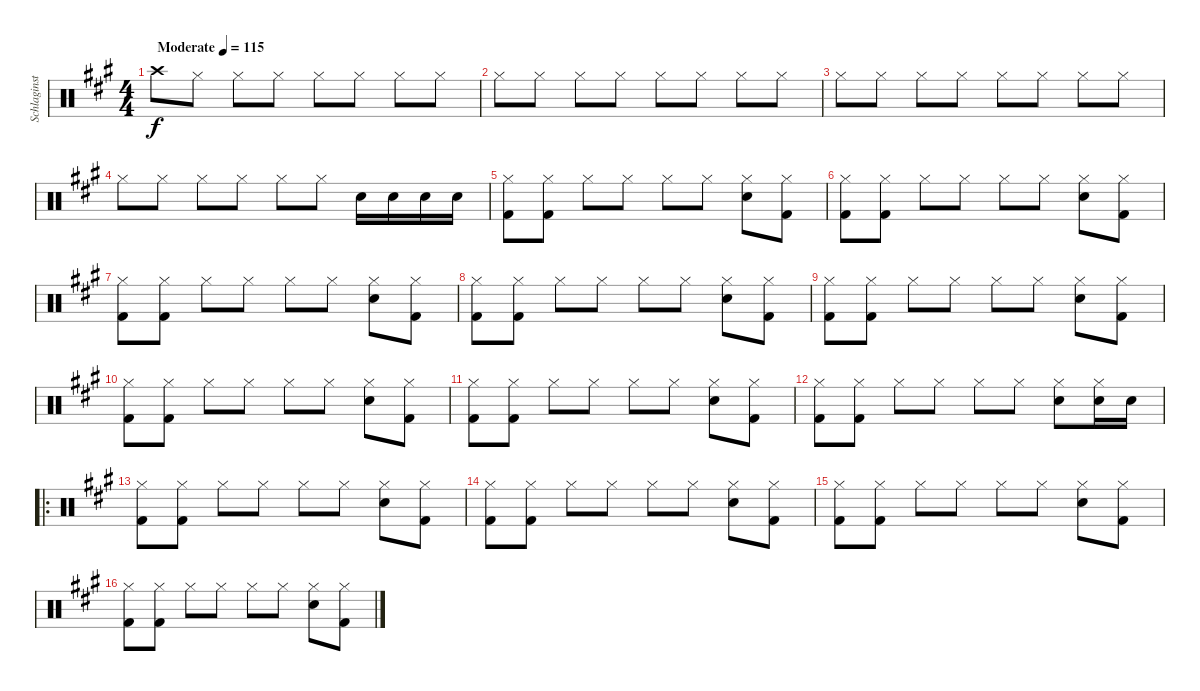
\track ("Schlaginstrumente - Auswahl" "Schlaginst") {instrument percussion}
\staff {score}
\articulation defaults
\ts (4 4)
\tempo (115 "Moderate")
\clef neutral
\ks a "Crash high (hit)".8{dy f} "Hi-Hat (closed)".8 "Hi-Hat (closed)".8 "Hi-Hat (closed)".8 "Hi-Hat (closed)".8 "Hi-Hat (closed)".8 "Hi-Hat (closed)".8 "Hi-Hat (closed)".8
|
"Hi-Hat (closed)".8 "Hi-Hat (closed)".8 "Hi-Hat (closed)".8 "Hi-Hat (closed)".8 "Hi-Hat (closed)".8 "Hi-Hat (closed)".8 "Hi-Hat (closed)".8 "Hi-Hat (closed)".8 |
"Hi-Hat (closed)".8 "Hi-Hat (closed)".8 "Hi-Hat (closed)".8 "Hi-Hat (closed)".8 "Hi-Hat (closed)".8 "Hi-Hat (closed)".8 "Hi-Hat (closed)".8 "Hi-Hat (closed)".8 |
"Hi-Hat (closed)".8 "Hi-Hat (closed)".8 "Hi-Hat (closed)".8 "Hi-Hat (closed)".8 "Hi-Hat (closed)".8 "Hi-Hat (closed)".8 "Snare (hit) 2".16 "Snare (hit) 2".16 "Snare (hit) 2".16 "Snare (hit) 2".16 |
("Hi-Hat (closed)" "Kick (hit) 2").8 ("Hi-Hat (closed)" "Kick (hit) 2").8 "Hi-Hat (closed)".8 "Hi-Hat (closed)".8 "Hi-Hat (closed)".8 "Hi-Hat (closed)".8 ("Snare (hit) 2" "Hi-Hat (closed)").8 ("Hi-Hat (closed)" "Kick (hit) 2").8 |
("Hi-Hat (closed)" "Kick (hit) 2").8 ("Hi-Hat (closed)" "Kick (hit) 2").8 "Hi-Hat (closed)".8 "Hi-Hat (closed)".8 "Hi-Hat (closed)".8 "Hi-Hat (closed)".8 ("Snare (hit) 2" "Hi-Hat (closed)").8 ("Hi-Hat (closed)" "Kick (hit) 2").8 |
("Hi-Hat (closed)" "Kick (hit) 2").8 ("Hi-Hat (closed)" "Kick (hit) 2").8 "Hi-Hat (closed)".8 "Hi-Hat (closed)".8 "Hi-Hat (closed)".8 "Hi-Hat (closed)".8 ("Snare (hit) 2" "Hi-Hat (closed)").8 ("Hi-Hat (closed)" "Kick (hit) 2").8 |
("Hi-Hat (closed)" "Kick (hit) 2").8 ("Hi-Hat (closed)" "Kick (hit) 2").8 "Hi-Hat (closed)".8 "Hi-Hat (closed)".8 "Hi-Hat (closed)".8 "Hi-Hat (closed)".8 ("Snare (hit) 2" "Hi-Hat (closed)").8 ("Hi-Hat (closed)" "Kick (hit) 2").8 |
("Hi-Hat (closed)" "Kick (hit) 2").8 ("Hi-Hat (closed)" "Kick (hit) 2").8 "Hi-Hat (closed)".8 "Hi-Hat (closed)".8 "Hi-Hat (closed)".8 "Hi-Hat (closed)".8 ("Snare (hit) 2" "Hi-Hat (closed)").8 ("Hi-Hat (closed)" "Kick (hit) 2").8 |
("Hi-Hat (closed)" "Kick (hit) 2").8 ("Hi-Hat (closed)" "Kick (hit) 2").8 "Hi-Hat (closed)".8 "Hi-Hat (closed)".8 "Hi-Hat (closed)".8 "Hi-Hat (closed)".8 ("Snare (hit) 2" "Hi-Hat (closed)").8 ("Hi-Hat (closed)" "Kick (hit) 2").8 |
("Hi-Hat (closed)" "Kick (hit) 2").8 ("Hi-Hat (closed)" "Kick (hit) 2").8 "Hi-Hat (closed)".8 "Hi-Hat (closed)".8 "Hi-Hat (closed)".8 "Hi-Hat (closed)".8 ("Snare (hit) 2" "Hi-Hat (closed)").8 ("Hi-Hat (closed)" "Kick (hit) 2").8 |
("Hi-Hat (closed)" "Kick (hit) 2").8 ("Hi-Hat (closed)" "Kick (hit) 2").8 "Hi-Hat (closed)".8 "Hi-Hat (closed)".8 "Hi-Hat (closed)".8 "Hi-Hat (closed)".8 ("Snare (hit) 2" "Hi-Hat (closed)").8 ("Snare (hit) 2" "Hi-Hat (closed)").16 "Snare (hit) 2".16 |
\ro
("Hi-Hat (closed)" "Kick (hit) 2").8 ("Hi-Hat (closed)" "Kick (hit) 2").8 "Hi-Hat (closed)".8 "Hi-Hat (closed)".8 "Hi-Hat (closed)".8 "Hi-Hat (closed)".8 ("Snare (hit) 2" "Hi-Hat (closed)").8 ("Hi-Hat (closed)" "Kick (hit) 2").8 |
("Hi-Hat (closed)" "Kick (hit) 2").8 ("Hi-Hat (closed)" "Kick (hit) 2").8 "Hi-Hat (closed)".8 "Hi-Hat (closed)".8 "Hi-Hat (closed)".8 "Hi-Hat (closed)".8 ("Snare (hit) 2" "Hi-Hat (closed)").8 ("Hi-Hat (closed)" "Kick (hit) 2").8 |
("Hi-Hat (closed)" "Kick (hit) 2").8 ("Hi-Hat (closed)" "Kick (hit) 2").8 "Hi-Hat (closed)".8 "Hi-Hat (closed)".8 "Hi-Hat (closed)".8 "Hi-Hat (closed)".8 ("Snare (hit) 2" "Hi-Hat (closed)").8 ("Hi-Hat (closed)" "Kick (hit) 2").8 |
("Hi-Hat (closed)" "Kick (hit) 2").8 ("Hi-Hat (closed)" "Kick (hit) 2").8 "Hi-Hat (closed)".8 "Hi-Hat (closed)".8 "Hi-Hat (closed)".8 "Hi-Hat (closed)".8 ("Snare (hit) 2" "Hi-Hat (closed)").8 ("Hi-Hat (closed)" "Kick (hit) 2").8
